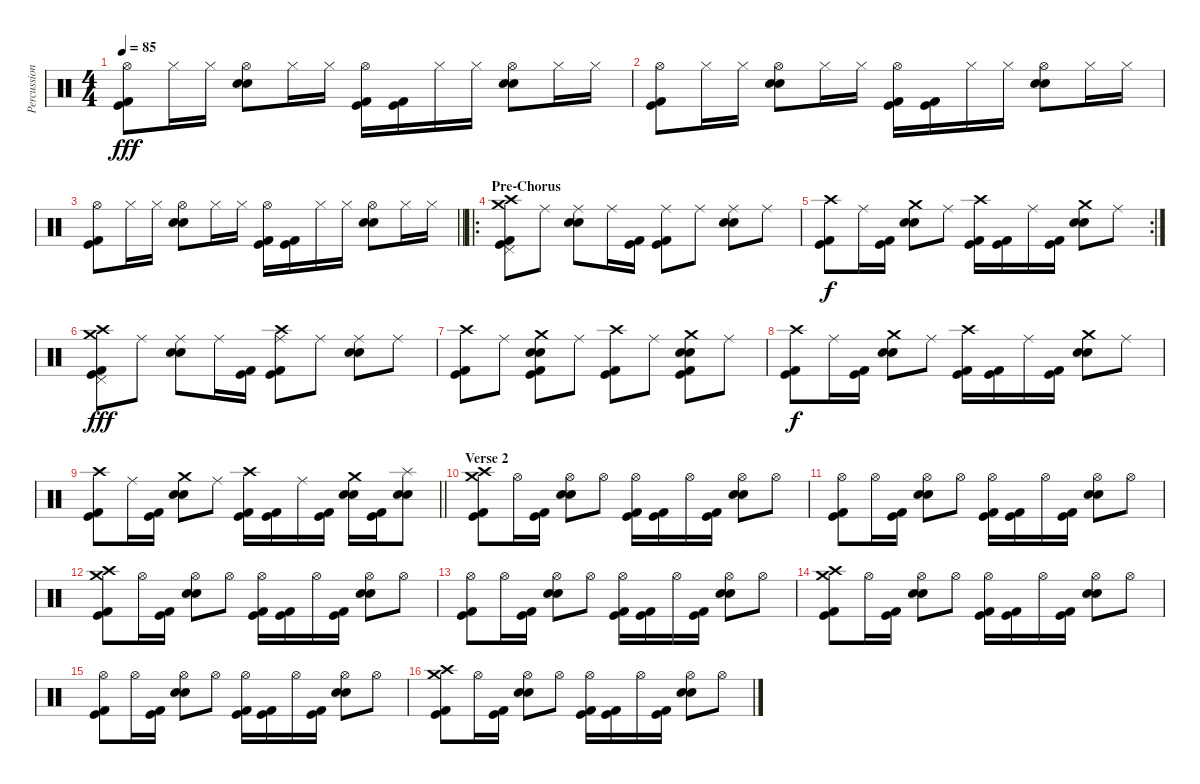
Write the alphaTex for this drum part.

\track ("Percussion" "Percussion") {instrument percussion}
\staff {score}
\articulation defaults
\ts (4 4)
\tempo 85
\clef neutral
\ks c
("Kick (hit) 2" "Kick (hit)" "Hi-Hat (open)").8{dy fff} "Hi-Hat (closed)".16 "Hi-Hat (closed)".16 ("Electric Snare (hit)" "Snare (hit) 2" "Hi-Hat (open)").8 "Hi-Hat (closed)".16 "Hi-Hat (closed)".16 ("Kick (hit) 2" "Kick (hit)" "Hi-Hat (open)").16 ("Kick (hit) 2" "Kick (hit)").16 "Hi-Hat (closed)".16 "Hi-Hat (closed)".16 ("Electric Snare (hit)" "Snare (hit) 2" "Hi-Hat (open)").8 "Hi-Hat (closed)".16 "Hi-Hat (closed)".16 |
("Kick (hit) 2" "Kick (hit)" "Hi-Hat (open)").8 "Hi-Hat (closed)".16 "Hi-Hat (closed)".16 ("Electric Snare (hit)" "Snare (hit) 2" "Hi-Hat (open)").8 "Hi-Hat (closed)".16 "Hi-Hat (closed)".16 ("Kick (hit) 2" "Kick (hit)" "Hi-Hat (open)").16 ("Kick (hit) 2" "Kick (hit)").16 "Hi-Hat (closed)".16 "Hi-Hat (closed)".16 ("Electric Snare (hit)" "Snare (hit) 2" "Hi-Hat (open)").8 "Hi-Hat (closed)".16 "Hi-Hat (closed)".16 |
\barLineRight lightlight
("Kick (hit) 2" "Kick (hit)" "Hi-Hat (open)").8 "Hi-Hat (closed)".16 "Hi-Hat (closed)".16 ("Electric Snare (hit)" "Snare (hit) 2" "Hi-Hat (open)").8 "Hi-Hat (closed)".16 "Hi-Hat (closed)".16 ("Kick (hit) 2" "Kick (hit)" "Hi-Hat (open)").16 ("Kick (hit) 2" "Kick (hit)").16 "Hi-Hat (closed)".16 "Hi-Hat (closed)".16 ("Electric Snare (hit)" "Snare (hit) 2" "Hi-Hat (open)").8 "Hi-Hat (closed)".16 "Hi-Hat (closed)".16 |
\ro
\section ("" "Pre-Chorus")
("Kick (hit) 2" "Kick (hit)" "Pedal Hi-Hat (hit)" "Crash medium (hit)" "Crash high (hit)").8 "Ride (middle)".8 ("Electric Snare (hit)" "Snare (hit) 2" "Ride (middle)").8 "Ride (middle)".16 ("Kick (hit) 2" "Kick (hit)").16 ("Kick (hit) 2" "Kick (hit)" "Ride (middle)").8 "Ride (middle)".8 ("Electric Snare (hit)" "Snare (hit) 2" "Ride (middle)").8 "Ride (middle)".8 |
\rc 2
("Kick (hit) 2" "Kick (hit)" "Crash high (hit)").8{dy f} "Ride (middle)".16 ("Kick (hit) 2" "Kick (hit)").16 ("Electric Snare (hit)" "Snare (hit) 2" "Crash medium (hit)").8 "Ride (middle)".8 ("Kick (hit) 2" "Kick (hit)" "Crash high (hit)").16 ("Kick (hit) 2" "Kick (hit)").16 "Ride (middle)".16 ("Kick (hit) 2" "Kick (hit)").16 ("Electric Snare (hit)" "Snare (hit) 2" "Crash medium (hit)").8 "Ride (middle)".8 |
("Kick (hit) 2" "Kick (hit)" "Pedal Hi-Hat (hit)" "Crash medium (hit)" "Crash high (hit)").8{dy fff} "Ride (middle)".8 ("Electric Snare (hit)" "Snare (hit) 2" "Ride (middle)").8 "Ride (middle)".16 ("Kick (hit) 2" "Kick (hit)").16 ("Kick (hit) 2" "Kick (hit)" "Ride (middle)" "Crash high (hit)").8 "Ride (middle)".8 ("Electric Snare (hit)" "Snare (hit) 2" "Ride (middle)").8 "Ride (middle)".8 |
("Kick (hit) 2" "Kick (hit)" "Crash high (hit)").8 "Ride (middle)".8 ("Kick (hit) 2" "Kick (hit)" "Snare (hit) 2" "Electric Snare (hit)" "Crash medium (hit)").8 "Ride (middle)".8 ("Kick (hit) 2" "Kick (hit)" "Crash high (hit)").8 "Ride (middle)".8 ("Kick (hit) 2" "Kick (hit)" "Electric Snare (hit)" "Snare (hit) 2" "Crash medium (hit)").8 "Ride (middle)".8 |
("Kick (hit) 2" "Kick (hit)" "Crash high (hit)").8{dy f} "Ride (middle)".16 ("Kick (hit) 2" "Kick (hit)").16 ("Electric Snare (hit)" "Snare (hit) 2" "Crash medium (hit)").8 "Ride (middle)".8 ("Kick (hit) 2" "Kick (hit)" "Crash high (hit)").16 ("Kick (hit) 2" "Kick (hit)").16 "Ride (middle)".16 ("Kick (hit) 2" "Kick (hit)").16 ("Electric Snare (hit)" "Snare (hit) 2" "Crash medium (hit)").8 "Ride (middle)".8 |
\barLineRight lightlight
("Kick (hit) 2" "Kick (hit)" "Crash high (hit)").8 "Ride (middle)".16 ("Kick (hit) 2" "Kick (hit)").16 ("Electric Snare (hit)" "Snare (hit) 2" "Crash medium (hit)").8 "Ride (middle)".8 ("Kick (hit) 2" "Kick (hit)" "Crash high (hit)").16 ("Kick (hit) 2" "Kick (hit)").16 "Ride (middle)".16 ("Kick (hit) 2" "Kick (hit)").16 ("Electric Snare (hit)" "Snare (hit) 2" "Crash medium (hit)").16 ("Kick (hit) 2" "Kick (hit)").16 ("Electric Snare (hit)" "Snare (hit) 2" "Splash (hit)").8 |
\section ("" "Verse 2")
("Kick (hit) 2" "Kick (hit)" "Crash high (hit)" "Crash medium (hit)").8 "Hi-Hat (open)".16 ("Kick (hit) 2" "Kick (hit)").16 ("Electric Snare (hit)" "Snare (hit) 2" "Hi-Hat (open)").8 "Hi-Hat (open)".8 ("Kick (hit) 2" "Kick (hit)" "Hi-Hat (open)").16 ("Kick (hit) 2" "Kick (hit)").16 "Hi-Hat (open)".16 ("Kick (hit) 2" "Kick (hit)").16 ("Electric Snare (hit)" "Snare (hit) 2" "Hi-Hat (open)").8 "Hi-Hat (open)".8 |
("Kick (hit) 2" "Kick (hit)" "Hi-Hat (open)").8 "Hi-Hat (open)".16 ("Kick (hit) 2" "Kick (hit)").16 ("Electric Snare (hit)" "Snare (hit) 2" "Hi-Hat (open)").8 "Hi-Hat (open)".8 ("Kick (hit) 2" "Kick (hit)" "Hi-Hat (open)").16 ("Kick (hit) 2" "Kick (hit)").16 "Hi-Hat (open)".16 ("Kick (hit) 2" "Kick (hit)").16 ("Electric Snare (hit)" "Snare (hit) 2" "Hi-Hat (open)").8 "Hi-Hat (open)".8 |
("Kick (hit) 2" "Kick (hit)" "Crash high (hit)" "Crash medium (hit)").8 "Hi-Hat (open)".16 ("Kick (hit) 2" "Kick (hit)").16 ("Electric Snare (hit)" "Snare (hit) 2" "Hi-Hat (open)").8 "Hi-Hat (open)".8 ("Kick (hit) 2" "Kick (hit)" "Hi-Hat (open)").16 ("Kick (hit) 2" "Kick (hit)").16 "Hi-Hat (open)".16 ("Kick (hit) 2" "Kick (hit)").16 ("Electric Snare (hit)" "Snare (hit) 2" "Hi-Hat (open)").8 "Hi-Hat (open)".8 |
("Kick (hit) 2" "Kick (hit)" "Hi-Hat (open)").8 "Hi-Hat (open)".16 ("Kick (hit) 2" "Kick (hit)").16 ("Electric Snare (hit)" "Snare (hit) 2" "Hi-Hat (open)").8 "Hi-Hat (open)".8 ("Kick (hit) 2" "Kick (hit)" "Hi-Hat (open)").16 ("Kick (hit) 2" "Kick (hit)").16 "Hi-Hat (open)".16 ("Kick (hit) 2" "Kick (hit)").16 ("Electric Snare (hit)" "Snare (hit) 2" "Hi-Hat (open)").8 "Hi-Hat (open)".8 |
("Kick (hit) 2" "Kick (hit)" "Crash high (hit)" "Crash medium (hit)").8 "Hi-Hat (open)".16 ("Kick (hit) 2" "Kick (hit)").16 ("Electric Snare (hit)" "Snare (hit) 2" "Hi-Hat (open)").8 "Hi-Hat (open)".8 ("Kick (hit) 2" "Kick (hit)" "Hi-Hat (open)").16 ("Kick (hit) 2" "Kick (hit)").16 "Hi-Hat (open)".16 ("Kick (hit) 2" "Kick (hit)").16 ("Electric Snare (hit)" "Snare (hit) 2" "Hi-Hat (open)").8 "Hi-Hat (open)".8 |
("Kick (hit) 2" "Kick (hit)" "Hi-Hat (open)").8 "Hi-Hat (open)".16 ("Kick (hit) 2" "Kick (hit)").16 ("Electric Snare (hit)" "Snare (hit) 2" "Hi-Hat (open)").8 "Hi-Hat (open)".8 ("Kick (hit) 2" "Kick (hit)" "Hi-Hat (open)").16 ("Kick (hit) 2" "Kick (hit)").16 "Hi-Hat (open)".16 ("Kick (hit) 2" "Kick (hit)").16 ("Electric Snare (hit)" "Snare (hit) 2" "Hi-Hat (open)").8 "Hi-Hat (open)".8 |
("Kick (hit) 2" "Kick (hit)" "Crash high (hit)" "Crash medium (hit)").8 "Hi-Hat (open)".16 ("Kick (hit) 2" "Kick (hit)").16 ("Electric Snare (hit)" "Snare (hit) 2" "Hi-Hat (open)").8 "Hi-Hat (open)".8 ("Kick (hit) 2" "Kick (hit)" "Hi-Hat (open)").16 ("Kick (hit) 2" "Kick (hit)").16 "Hi-Hat (open)".16 ("Kick (hit) 2" "Kick (hit)").16 ("Electric Snare (hit)" "Snare (hit) 2" "Hi-Hat (open)").8 "Hi-Hat (open)".8
